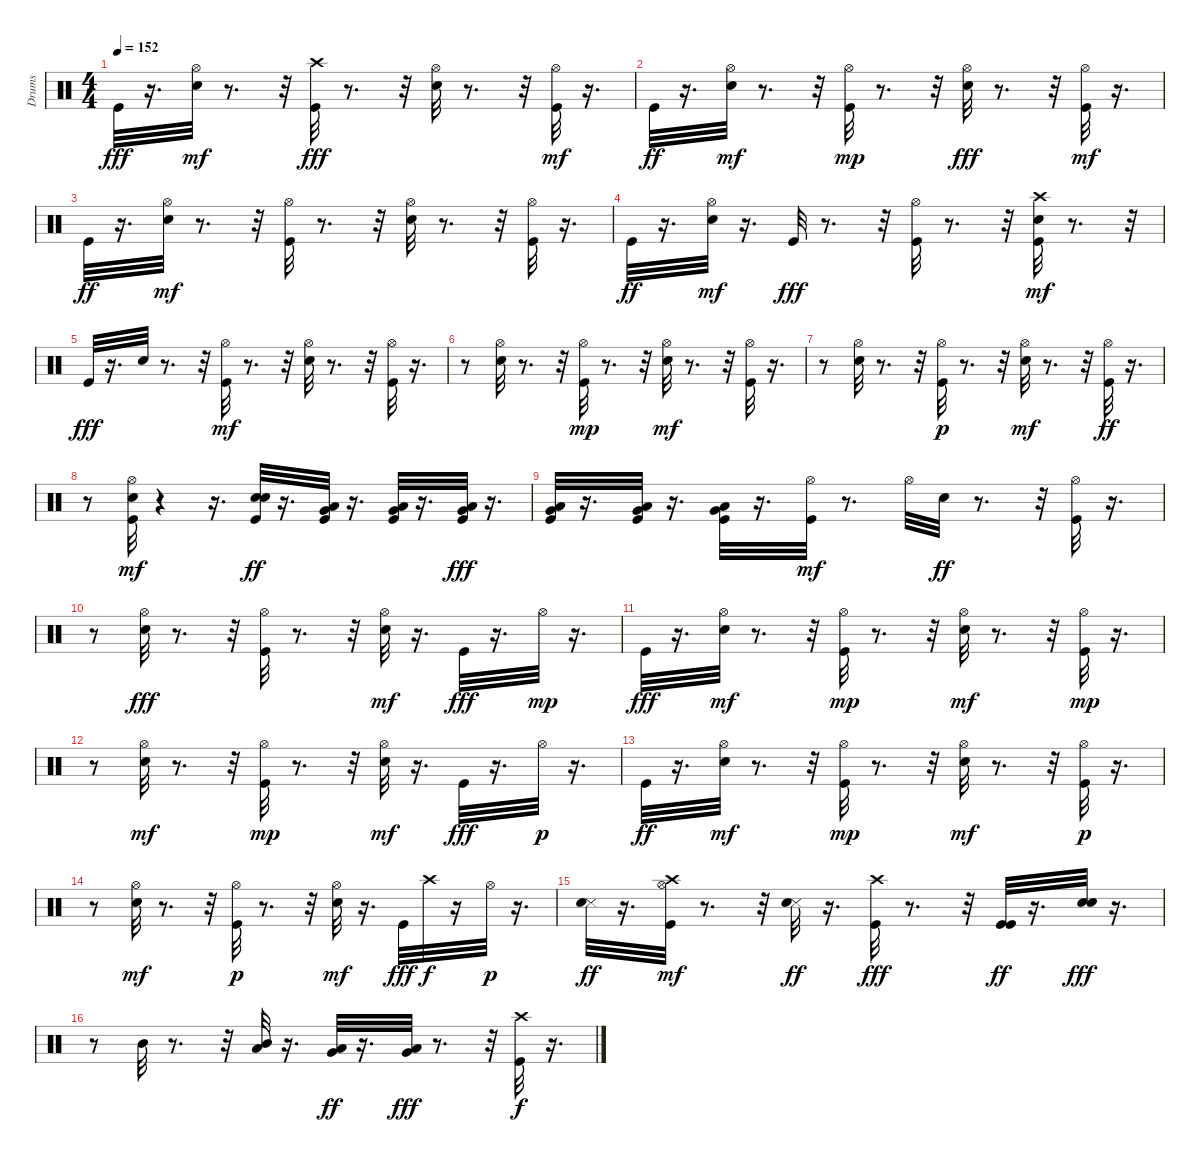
\track ("Drums" "Drums") {instrument percussion}
\staff {score}
\articulation defaults
\ts (4 4)
\tempo 152
\clef neutral
\ks c "Kick (hit)".32{dy fff}
r.16{d} ("Snare (hit) 2" "Hi-Hat (open)").32{dy mf} r.8{d} r.32 ("Crash high (hit)" "Kick (hit)").32{dy fff} r.8{d} r.32 ("Hi-Hat (open)" "Snare (hit) 2").32 r.8{d} r.32 ("Kick (hit)" "Hi-Hat (open)").32{dy mf} r.16{d} |
"Kick (hit)".32{dy ff} r.16{d} ("Snare (hit) 2" "Hi-Hat (open)").32{dy mf} r.8{d} r.32 ("Hi-Hat (open)" "Kick (hit)").32{dy mp} r.8{d} r.32 ("Hi-Hat (open)" "Snare (hit) 2").32{dy fff} r.8{d} r.32 ("Kick (hit)" "Hi-Hat (open)").32{dy mf} r.16{d} |
"Kick (hit)".32{dy ff} r.16{d} ("Snare (hit) 2" "Hi-Hat (open)").32{dy mf} r.8{d} r.32 ("Kick (hit)" "Hi-Hat (open)").32 r.8{d} r.32 ("Snare (hit) 2" "Hi-Hat (open)").32 r.8{d} r.32 ("Kick (hit)" "Hi-Hat (open)").32 r.16{d} |
"Kick (hit)".32{dy ff} r.16{d} ("Snare (hit) 2" "Hi-Hat (open)").32{dy mf} r.16{d} "Kick (hit)".32{dy fff} r.8{d} r.32 ("Hi-Hat (open)" "Kick (hit)").32 r.8{d} r.32 ("Snare (hit) 2" "Kick (hit)" "Crash high (hit)").32{dy mf} r.8{d} r.32 |
"Kick (hit)".32{dy fff} r.16{d} "Snare (hit) 2".32 r.8{d} r.32 ("Kick (hit)" "Hi-Hat (open)").32{dy mf} r.8{d} r.32 ("Snare (hit) 2" "Hi-Hat (open)").32 r.8{d} r.32 ("Kick (hit)" "Hi-Hat (open)").32 r.16{d} |
r.8 ("Snare (hit) 2" "Hi-Hat (open)").32 r.8{d} r.32 ("Kick (hit)" "Hi-Hat (open)").32{dy mp} r.8{d} r.32 ("Snare (hit) 2" "Hi-Hat (open)").32{dy mf} r.8{d} r.32 ("Kick (hit)" "Hi-Hat (open)").32 r.16{d} |
r.8 ("Snare (hit) 2" "Hi-Hat (open)").32 r.8{d} r.32 ("Kick (hit)" "Hi-Hat (open)").32{dy p} r.8{d} r.32 ("Snare (hit) 2" "Hi-Hat (open)").32{dy mf} r.8{d} r.32 ("Hi-Hat (open)" "Kick (hit)").32{dy ff} r.16{d} |
r.8 ("Kick (hit)" "Snare (hit) 2" "Hi-Hat (open)").32{dy mf} r.4 r.16{d} ("Snare (hit) 2" "Snare (hit) 2" "Kick (hit)").32{dy ff} r.16{d} ("Kick (hit)" "Very Low Tom (hit)" "Low Floor Tom (hit)").32 r.16{d} ("Very Low Tom (hit)" "Low Floor Tom (hit)" "Kick (hit)").32 r.16{d} ("Low Floor Tom (hit)" "Very Low Tom (hit)" "Kick (hit)").32{dy fff} r.16{d} |
("Very Low Tom (hit)" "Kick (hit)" "Low Floor Tom (hit)").32 r.16{d} ("Very Low Tom (hit)" "Low Floor Tom (hit)" "Kick (hit)").32 r.16{d} ("Kick (hit)" "Very Low Tom (hit)" "Low Floor Tom (hit)").32 r.16{d} ("Kick (hit)" "Hi-Hat (open)").32{dy mf} r.8{d} "Hi-Hat (open)".32 "Snare (hit) 2".32{dy ff} r.8{d} r.32 ("Hi-Hat (open)" "Kick (hit)").32 r.16{d} |
r.8 ("Hi-Hat (open)" "Snare (hit) 2").32{dy fff} r.8{d} r.32 ("Hi-Hat (open)" "Kick (hit)").32 r.8{d} r.32 ("Snare (hit) 2" "Hi-Hat (open)").32{dy mf} r.16{d} "Kick (hit)".32{dy fff} r.16{d} "Hi-Hat (open)".32{dy mp} r.16{d} |
"Kick (hit)".32{dy fff} r.16{d} ("Snare (hit) 2" "Hi-Hat (open)").32{dy mf} r.8{d} r.32 ("Kick (hit)" "Hi-Hat (open)").32{dy mp} r.8{d} r.32 ("Snare (hit) 2" "Hi-Hat (open)").32{dy mf} r.8{d} r.32 ("Kick (hit)" "Hi-Hat (open)").32{dy mp} r.16{d} |
r.8 ("Snare (hit) 2" "Hi-Hat (open)").32{dy mf} r.8{d} r.32 ("Kick (hit)" "Hi-Hat (open)").32{dy mp} r.8{d} r.32 ("Snare (hit) 2" "Hi-Hat (open)").32{dy mf} r.16{d} "Kick (hit)".32{dy fff} r.16{d} "Hi-Hat (open)".32{dy p} r.16{d} |
"Kick (hit)".32{dy ff} r.16{d} ("Snare (hit) 2" "Hi-Hat (open)").32{dy mf} r.8{d} r.32 ("Kick (hit)" "Hi-Hat (open)").32{dy mp} r.8{d} r.32 ("Snare (hit) 2" "Hi-Hat (open)").32{dy mf} r.8{d} r.32 ("Kick (hit)" "Hi-Hat (open)").32{dy p} r.16{d} |
r.8 ("Snare (hit) 2" "Hi-Hat (open)").32{dy mf} r.8{d} r.32 ("Kick (hit)" "Hi-Hat (open)").32{dy p} r.8{d} r.32 ("Snare (hit) 2" "Hi-Hat (open)").32{dy mf} r.16{d} "Kick (hit)".32{dy fff} "Crash high (hit)".32{dy f} r.16 "Hi-Hat (open)".32{dy p} r.16{d} |
("Snare (side stick) 3" "Snare (hit) 2").32{dy ff} r.16{d} ("Crash high (hit)" "Kick (hit)" "Hi-Hat (open)").32{dy mf} r.8{d} r.32 ("Snare (side stick) 3" "Snare (hit) 2").32{dy ff} r.16{d} ("Crash high (hit)" "Kick (hit)").32{dy fff} r.8{d} r.32 ("Kick (hit)" "Kick (hit)").32{dy ff} r.16{d} ("Snare (hit) 2" "Snare (hit) 2").32{dy fff} r.16{d} |
r.8 "Mid Tom (hit)".32 r.8{d} r.32 ("Low Tom (hit)" "Mid Tom (hit)").32 r.16{d} ("Low Tom (hit)" "Very Low Tom (hit)").32{dy ff} r.16{d} ("Low Floor Tom (hit)" "Very Low Tom (hit)").32{dy fff} r.8{d} r.32 ("Kick (hit)" "Crash high (hit)").32{dy f} r.16{d}
